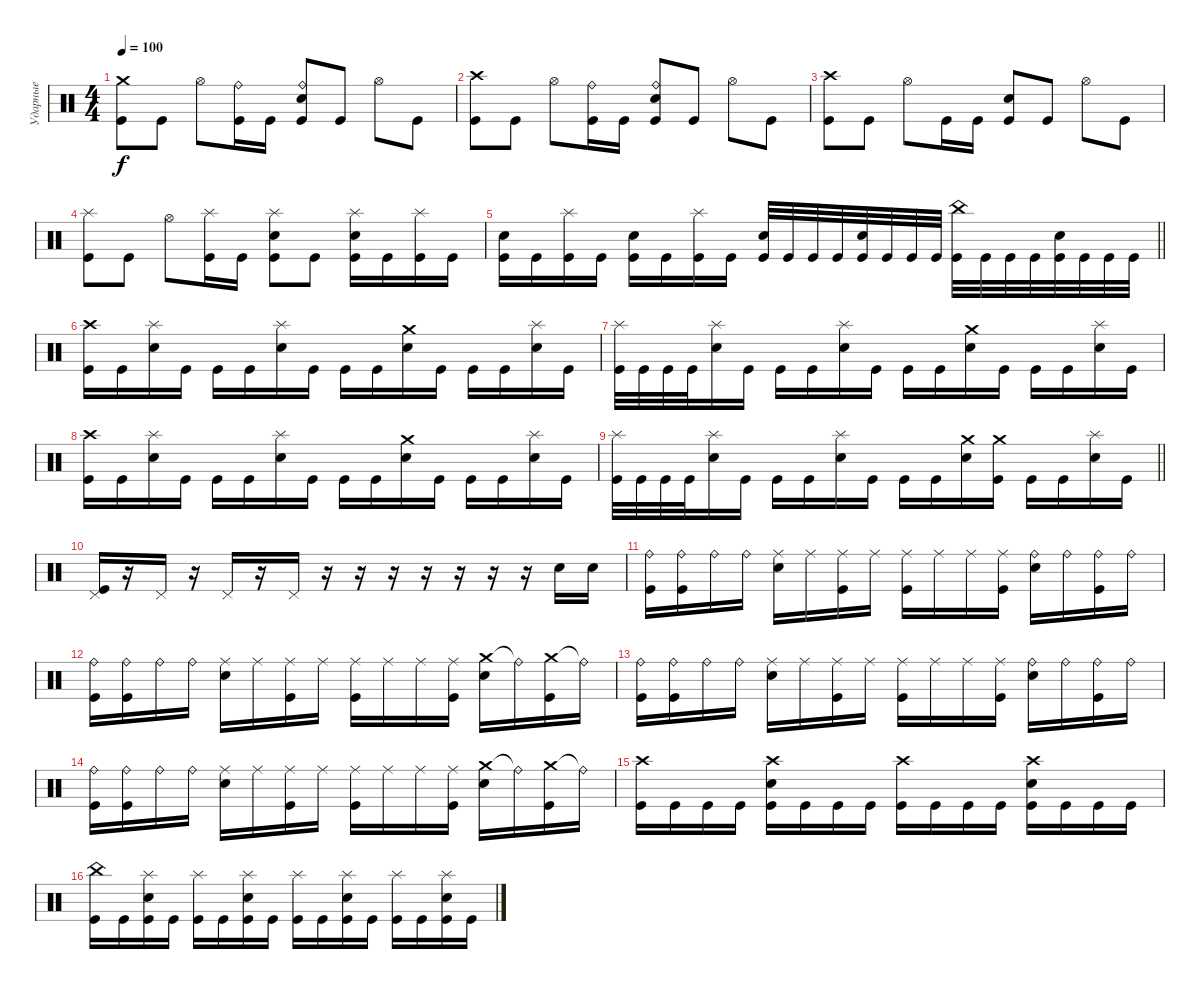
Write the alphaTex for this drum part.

\track ("Ударные" "Ударные") {instrument percussion}
\staff {score}
\articulation defaults
\ts (4 4)
\tempo 100
\clef neutral
\ks c
("Crash medium (hit)" "Kick (hit)").8{dy f} "Kick (hit)".8 "Hi-Hat (open)".8 ("Ride (bell)" "Kick (hit)").16 "Kick (hit)".16 ("Ride (bell)" "Electric Snare (hit)" "Kick (hit)").8 "Kick (hit)".8 "Hi-Hat (open)".8 "Kick (hit)".8 |
("Crash high (hit)" "Kick (hit)").8 "Kick (hit)".8 "Hi-Hat (open)".8 ("Ride (bell)" "Kick (hit)").16 "Kick (hit)".16 ("Ride (bell)" "Electric Snare (hit)" "Kick (hit)").8 "Kick (hit)".8 "Hi-Hat (open)".8 "Kick (hit)".8 |
("Crash high (hit)" "Kick (hit)").8 "Kick (hit)".8 "Hi-Hat (open)".8 "Kick (hit)".16 "Kick (hit)".16 ("Electric Snare (hit)" "Kick (hit)").8 "Kick (hit)".8 "Hi-Hat (open)".8 "Kick (hit)".8 |
("Splash (hit)" "Kick (hit)").8 "Kick (hit)".8 "Hi-Hat (open)".8 ("Splash (hit)" "Kick (hit)").16 "Kick (hit)".16 ("Splash (hit)" "Electric Snare (hit)" "Kick (hit)").8 "Kick (hit)".8 ("Splash (hit)" "Electric Snare (hit)" "Kick (hit)").16 "Kick (hit)".16 ("Splash (hit)" "Kick (hit)").16 "Kick (hit)".16 |
\barLineRight lightlight
("Electric Snare (hit)" "Kick (hit)").16 "Kick (hit)".16 ("Splash (hit)" "Kick (hit)").16 "Kick (hit)".16 ("Electric Snare (hit)" "Kick (hit)").16 "Kick (hit)".16 ("Splash (hit)" "Kick (hit)").16 "Kick (hit)".16 ("Electric Snare (hit)" "Kick (hit)").32 "Kick (hit)".32 "Kick (hit)".32 "Kick (hit)".32 ("Electric Snare (hit)" "Kick (hit)").32 "Kick (hit)".32 "Kick (hit)".32 "Kick (hit)".32 ("China (hit)" "Kick (hit)").32 "Kick (hit)".32 "Kick (hit)".32 "Kick (hit)".32 ("Electric Snare (hit)" "Kick (hit)").32 "Kick (hit)".32 "Kick (hit)".32 "Kick (hit)".32 |
\section ("" " ")
("Crash high (hit)" "Kick (hit)").16 "Kick (hit)".16 ("Electric Snare (hit)" "Splash (hit)").16 "Kick (hit)".16 "Kick (hit)".16 "Kick (hit)".16 ("Electric Snare (hit)" "Splash (hit)").16 "Kick (hit)".16 "Kick (hit)".16 "Kick (hit)".16 ("Crash medium (hit)" "Electric Snare (hit)").16 "Kick (hit)".16 "Kick (hit)".16 "Kick (hit)".16 ("Electric Snare (hit)" "Splash (hit)").16 "Kick (hit)".16 |
("Splash (hit)" "Kick (hit)").32 "Kick (hit)".32 "Kick (hit)".32 "Kick (hit)".32 ("Electric Snare (hit)" "Splash (hit)").16 "Kick (hit)".16 "Kick (hit)".16 "Kick (hit)".16 ("Electric Snare (hit)" "Splash (hit)").16 "Kick (hit)".16 "Kick (hit)".16 "Kick (hit)".16 ("Crash medium (hit)" "Electric Snare (hit)").16 "Kick (hit)".16 "Kick (hit)".16 "Kick (hit)".16 ("Electric Snare (hit)" "Splash (hit)").16 "Kick (hit)".16 |
("Crash high (hit)" "Kick (hit)").16 "Kick (hit)".16 ("Electric Snare (hit)" "Splash (hit)").16 "Kick (hit)".16 "Kick (hit)".16 "Kick (hit)".16 ("Electric Snare (hit)" "Splash (hit)").16 "Kick (hit)".16 "Kick (hit)".16 "Kick (hit)".16 ("Crash medium (hit)" "Electric Snare (hit)").16 "Kick (hit)".16 "Kick (hit)".16 "Kick (hit)".16 ("Electric Snare (hit)" "Splash (hit)").16 "Kick (hit)".16 |
\barLineRight lightlight
("Splash (hit)" "Kick (hit)").32 "Kick (hit)".32 "Kick (hit)".32 "Kick (hit)".32 ("Electric Snare (hit)" "Splash (hit)").16 "Kick (hit)".16 "Kick (hit)".16 "Kick (hit)".16 ("Electric Snare (hit)" "Splash (hit)").16 "Kick (hit)".16 "Kick (hit)".16 "Kick (hit)".16 ("Crash medium (hit)" "Electric Snare (hit)").16 ("Crash medium (hit)" "Kick (hit)").16 "Kick (hit)".16 "Kick (hit)".16 ("Electric Snare (hit)" "Splash (hit)").16 "Kick (hit)".16 |
\section ("" " ")
("Pedal Hi-Hat (hit)" "Kick (hit)").16 r.16 "Pedal Hi-Hat (hit)".16 r.16 "Pedal Hi-Hat (hit)".16 r.16 "Pedal Hi-Hat (hit)".16 r.16 r.16 r.16 r.16 r.16 r.16 r.16 "Electric Snare (hit)".16 "Electric Snare (hit)".16 |
("Ride (bell)" "Kick (hit)").16 ("Ride (bell)" "Kick (hit)").16 "Ride (bell)".16 "Ride (bell)".16 ("Ride (middle)" "Electric Snare (hit)").16 "Ride (middle)".16 ("Ride (middle)" "Kick (hit)").16 "Ride (middle)".16 ("Ride (middle)" "Kick (hit)").16 "Ride (middle)".16 "Ride (middle)".16 ("Ride (middle)" "Kick (hit)").16 ("Ride (bell)" "Electric Snare (hit)").16 "Ride (bell)".16 ("Ride (bell)" "Kick (hit)").16 "Ride (bell)".16 |
("Ride (bell)" "Kick (hit)").16 ("Ride (bell)" "Kick (hit)").16 "Ride (bell)".16 "Ride (bell)".16 ("Ride (middle)" "Electric Snare (hit)").16 "Ride (middle)".16 ("Ride (middle)" "Kick (hit)").16 "Ride (middle)".16 ("Ride (middle)" "Kick (hit)").16 "Ride (middle)".16 "Ride (middle)".16 ("Ride (middle)" "Kick (hit)").16 ("Crash medium (hit)" "Electric Snare (hit)").16 "Ride (bell)"{t}.16 ("Crash medium (hit)" "Kick (hit)").16 "Ride (bell)"{t}.16 |
("Ride (bell)" "Kick (hit)").16 ("Ride (bell)" "Kick (hit)").16 "Ride (bell)".16 "Ride (bell)".16 ("Ride (middle)" "Electric Snare (hit)").16 "Ride (middle)".16 ("Ride (middle)" "Kick (hit)").16 "Ride (middle)".16 ("Ride (middle)" "Kick (hit)").16 "Ride (middle)".16 "Ride (middle)".16 ("Ride (middle)" "Kick (hit)").16 ("Ride (bell)" "Electric Snare (hit)").16 "Ride (bell)".16 ("Ride (bell)" "Kick (hit)").16 "Ride (bell)".16 |
("Ride (bell)" "Kick (hit)").16 ("Ride (bell)" "Kick (hit)").16 "Ride (bell)".16 "Ride (bell)".16 ("Ride (middle)" "Electric Snare (hit)").16 "Ride (middle)".16 ("Ride (middle)" "Kick (hit)").16 "Ride (middle)".16 ("Ride (middle)" "Kick (hit)").16 "Ride (middle)".16 "Ride (middle)".16 ("Ride (middle)" "Kick (hit)").16 ("Crash medium (hit)" "Electric Snare (hit)").16 "Ride (bell)"{t}.16 ("Crash medium (hit)" "Kick (hit)").16 "Ride (bell)"{t}.16 |
("Crash high (hit)" "Kick (hit)").16 "Kick (hit)".16 "Kick (hit)".16 "Kick (hit)".16 ("Crash high (hit)" "Electric Snare (hit)" "Kick (hit)").16 "Kick (hit)".16 "Kick (hit)".16 "Kick (hit)".16 ("Crash high (hit)" "Kick (hit)").16 "Kick (hit)".16 "Kick (hit)".16 "Kick (hit)".16 ("Crash high (hit)" "Electric Snare (hit)" "Kick (hit)").16 "Kick (hit)".16 "Kick (hit)".16 "Kick (hit)".16 |
("China (hit)" "Kick (hit)").16 "Kick (hit)".16 ("Splash (hit)" "Electric Snare (hit)" "Kick (hit)").16 "Kick (hit)".16 ("Splash (hit)" "Kick (hit)").16 "Kick (hit)".16 ("Splash (hit)" "Electric Snare (hit)" "Kick (hit)").16 "Kick (hit)".16 ("Splash (hit)" "Kick (hit)").16 "Kick (hit)".16 ("Splash (hit)" "Electric Snare (hit)" "Kick (hit)").16 "Kick (hit)".16 ("Splash (hit)" "Kick (hit)").16 "Kick (hit)".16 ("Splash (hit)" "Electric Snare (hit)" "Kick (hit)").16 "Kick (hit)".16
